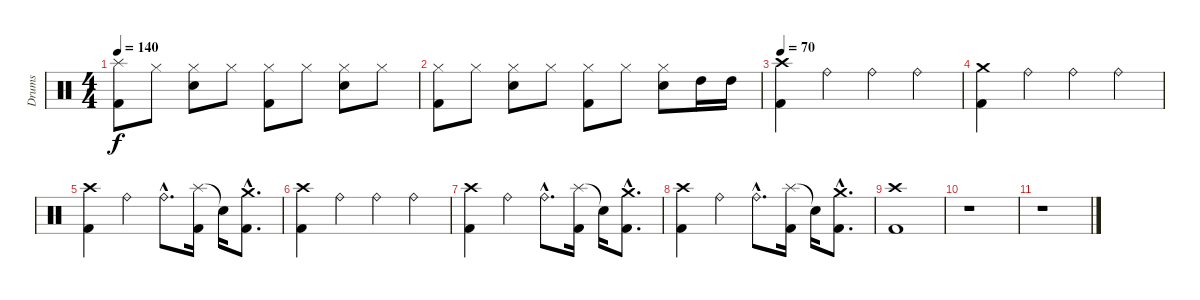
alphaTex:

\track ("Drums" "Drums") {instrument percussion}
\staff {score}
\articulation defaults
\ts (4 4)
\tempo 140
\clef neutral
\ks c
("Splash (hit)" "Kick (hit) 2").8{dy f} "Hi-Hat (closed)".8 ("Hi-Hat (closed)" "Electric Snare (hit)").8 "Hi-Hat (closed)".8 ("Hi-Hat (closed)" "Kick (hit) 2").8 "Hi-Hat (closed)".8 ("Hi-Hat (closed)" "Electric Snare (hit)").8 "Hi-Hat (closed)".8 |
("Hi-Hat (closed)" "Kick (hit) 2").8 "Hi-Hat (closed)".8 ("Hi-Hat (closed)" "Electric Snare (hit)").8 "Hi-Hat (closed)".8 ("Hi-Hat (closed)" "Kick (hit) 2").8 "Hi-Hat (closed)".8 ("Hi-Hat (closed)" "Electric Snare (hit)").8 "High Tom (hit)".16 "High Tom (hit)".16 |
\tempo 70
("Crash high (hit)" "Kick (hit) 2").4 "Ride (bell)".4 "Ride (bell)".4 "Ride (bell)".4 |
("Crash medium (hit)" "Kick (hit) 2").4 "Ride (bell)".4 "Ride (bell)".4 "Ride (bell)".4 |
("Crash high (hit)" "Kick (hit) 2").4 "Ride (bell)".4 "Ride (bell)"{hac}.8{d} ("Splash (hit)" "Kick (hit) 2").16 "Snare (hit)"{t}.16 ("Crash medium (hit)"{hac} "Kick (hit) 2"{hac}).8{d} |
("Crash high (hit)" "Kick (hit) 2").4 "Ride (bell)".4 "Ride (bell)".4 "Ride (bell)".4 |
("Crash high (hit)" "Kick (hit) 2").4 "Ride (bell)".4 "Ride (bell)"{hac}.8{d} ("Splash (hit)" "Kick (hit) 2").16 "Snare (hit)"{t}.16 ("Crash medium (hit)"{hac} "Kick (hit) 2"{hac}).8{d} |
("Crash high (hit)" "Kick (hit) 2").4 "Ride (bell)".4 "Ride (bell)"{hac}.8{d} ("Splash (hit)" "Kick (hit) 2").16 "Snare (hit)"{t}.16 ("Crash medium (hit)"{hac} "Kick (hit) 2"{hac}).8{d} |
("Crash high (hit)" "Kick (hit) 2").1 |
r.1 |
r.1
